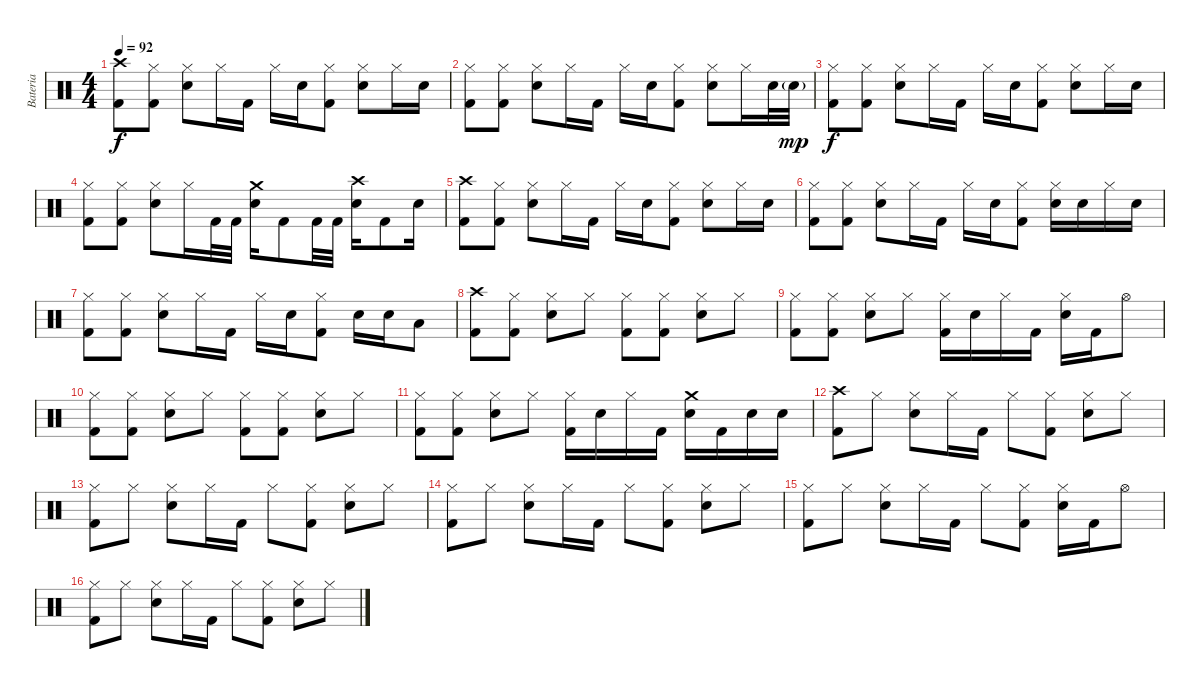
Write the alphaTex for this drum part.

\track ("Bateria" "Bateria") {instrument percussion}
\staff {score}
\articulation defaults
\ts (4 4)
\tempo 92
\clef neutral
\ks c
("Crash high (hit)" "Kick (hit) 2").8{dy f} ("Hi-Hat (closed)" "Kick (hit) 2").8 ("Electric Snare (hit)" "Hi-Hat (closed)").8 "Hi-Hat (closed)".16 "Kick (hit) 2".16 "Hi-Hat (closed)".16 "Electric Snare (hit)".16 ("Hi-Hat (closed)" "Kick (hit) 2").8 ("Electric Snare (hit)" "Hi-Hat (closed)").8 "Hi-Hat (closed)".16 "Electric Snare (hit)".16 |
("Hi-Hat (closed)" "Kick (hit) 2").8 ("Hi-Hat (closed)" "Kick (hit) 2").8 ("Electric Snare (hit)" "Hi-Hat (closed)").8 "Hi-Hat (closed)".16 "Kick (hit) 2".16 "Hi-Hat (closed)".16 "Electric Snare (hit)".16 ("Hi-Hat (closed)" "Kick (hit) 2").8 ("Electric Snare (hit)" "Hi-Hat (closed)").8 "Hi-Hat (closed)".16 "Electric Snare (hit)".32 "Electric Snare (hit)"{g}.32{dy mp} |
("Hi-Hat (closed)" "Kick (hit) 2").8{dy f} ("Hi-Hat (closed)" "Kick (hit) 2").8 ("Electric Snare (hit)" "Hi-Hat (closed)").8 "Hi-Hat (closed)".16 "Kick (hit) 2".16 "Hi-Hat (closed)".16 "Electric Snare (hit)".16 ("Hi-Hat (closed)" "Kick (hit) 2").8 ("Electric Snare (hit)" "Hi-Hat (closed)").8 "Hi-Hat (closed)".16 "Electric Snare (hit)".16 |
("Hi-Hat (closed)" "Kick (hit) 2").8 ("Hi-Hat (closed)" "Kick (hit) 2").8 ("Electric Snare (hit)" "Hi-Hat (closed)").8 "Hi-Hat (closed)".16 "Kick (hit) 2".32 "Kick (hit) 2".32 ("Crash medium (hit)" "Electric Snare (hit)").16 "Kick (hit) 2".8 "Kick (hit) 2".32 "Kick (hit) 2".32 ("Crash high (hit)" "Electric Snare (hit)").16 "Kick (hit) 2".8 "Electric Snare (hit)".16 |
("Crash high (hit)" "Kick (hit) 2").8 ("Hi-Hat (closed)" "Kick (hit) 2").8 ("Electric Snare (hit)" "Hi-Hat (closed)").8 "Hi-Hat (closed)".16 "Kick (hit) 2".16 "Hi-Hat (closed)".16 "Electric Snare (hit)".16 ("Hi-Hat (closed)" "Kick (hit) 2").8 ("Electric Snare (hit)" "Hi-Hat (closed)").8 "Hi-Hat (closed)".16 "Electric Snare (hit)".16 |
("Hi-Hat (closed)" "Kick (hit) 2").8 ("Hi-Hat (closed)" "Kick (hit) 2").8 ("Electric Snare (hit)" "Hi-Hat (closed)").8 "Hi-Hat (closed)".16 "Kick (hit) 2".16 "Hi-Hat (closed)".16 "Electric Snare (hit)".16 ("Hi-Hat (closed)" "Kick (hit) 2").8 ("Electric Snare (hit)" "Hi-Hat (closed)").16 "Electric Snare (hit)".16 "Hi-Hat (closed)".16 "Electric Snare (hit)".16 |
("Hi-Hat (closed)" "Kick (hit) 2").8 ("Hi-Hat (closed)" "Kick (hit) 2").8 ("Electric Snare (hit)" "Hi-Hat (closed)").8 "Hi-Hat (closed)".16 "Kick (hit) 2".16 "Hi-Hat (closed)".16 "Electric Snare (hit)".16 ("Hi-Hat (closed)" "Kick (hit) 2").8 "Electric Snare (hit)".16 "Electric Snare (hit)".16 "Low Tom (hit)".8 |
("Crash high (hit)" "Kick (hit) 2").8 ("Hi-Hat (closed)" "Kick (hit) 2").8 ("Electric Snare (hit)" "Hi-Hat (closed)").8 "Hi-Hat (closed)".8 ("Hi-Hat (closed)" "Kick (hit) 2").8 ("Hi-Hat (closed)" "Kick (hit) 2").8 ("Electric Snare (hit)" "Hi-Hat (closed)").8 "Hi-Hat (closed)".8 |
("Hi-Hat (closed)" "Kick (hit) 2").8 ("Hi-Hat (closed)" "Kick (hit) 2").8 ("Electric Snare (hit)" "Hi-Hat (closed)").8 "Hi-Hat (closed)".8 ("Hi-Hat (closed)" "Kick (hit) 2").16 "Electric Snare (hit)".16 "Hi-Hat (closed)".16 "Kick (hit) 2".16 ("Electric Snare (hit)" "Hi-Hat (closed)").16 "Kick (hit) 2".16 "Hi-Hat (open)".8 |
("Hi-Hat (closed)" "Kick (hit) 2").8 ("Hi-Hat (closed)" "Kick (hit) 2").8 ("Electric Snare (hit)" "Hi-Hat (closed)").8 "Hi-Hat (closed)".8 ("Hi-Hat (closed)" "Kick (hit) 2").8 ("Hi-Hat (closed)" "Kick (hit) 2").8 ("Electric Snare (hit)" "Hi-Hat (closed)").8 "Hi-Hat (closed)".8 |
("Hi-Hat (closed)" "Kick (hit) 2").8 ("Hi-Hat (closed)" "Kick (hit) 2").8 ("Electric Snare (hit)" "Hi-Hat (closed)").8 "Hi-Hat (closed)".8 ("Hi-Hat (closed)" "Kick (hit) 2").16 "Electric Snare (hit)".16 "Hi-Hat (closed)".16 "Kick (hit) 2".16 ("Crash medium (hit)" "Electric Snare (hit)").16 "Kick (hit) 2".16 "Electric Snare (hit)".16 "Electric Snare (hit)".16 |
("Crash high (hit)" "Kick (hit) 2").8 "Hi-Hat (closed)".8 ("Electric Snare (hit)" "Hi-Hat (closed)").8 "Hi-Hat (closed)".16 "Kick (hit) 2".16 "Hi-Hat (closed)".8 ("Hi-Hat (closed)" "Kick (hit) 2").8 ("Electric Snare (hit)" "Hi-Hat (closed)").8 "Hi-Hat (closed)".8 |
("Hi-Hat (closed)" "Kick (hit) 2").8 "Hi-Hat (closed)".8 ("Electric Snare (hit)" "Hi-Hat (closed)").8 "Hi-Hat (closed)".16 "Kick (hit) 2".16 "Hi-Hat (closed)".8 ("Hi-Hat (closed)" "Kick (hit) 2").8 ("Electric Snare (hit)" "Hi-Hat (closed)").8 "Hi-Hat (closed)".8 |
("Hi-Hat (closed)" "Kick (hit) 2").8 "Hi-Hat (closed)".8 ("Electric Snare (hit)" "Hi-Hat (closed)").8 "Hi-Hat (closed)".16 "Kick (hit) 2".16 "Hi-Hat (closed)".8 ("Hi-Hat (closed)" "Kick (hit) 2").8 ("Electric Snare (hit)" "Hi-Hat (closed)").8 "Hi-Hat (closed)".8 |
("Hi-Hat (closed)" "Kick (hit) 2").8 "Hi-Hat (closed)".8 ("Electric Snare (hit)" "Hi-Hat (closed)").8 "Hi-Hat (closed)".16 "Kick (hit) 2".16 "Hi-Hat (closed)".8 ("Hi-Hat (closed)" "Kick (hit) 2").8 ("Electric Snare (hit)" "Hi-Hat (closed)").16 "Kick (hit) 2".16 "Hi-Hat (open)".8 |
("Hi-Hat (closed)" "Kick (hit) 2").8 "Hi-Hat (closed)".8 ("Electric Snare (hit)" "Hi-Hat (closed)").8 "Hi-Hat (closed)".16 "Kick (hit) 2".16 "Hi-Hat (closed)".8 ("Hi-Hat (closed)" "Kick (hit) 2").8 ("Electric Snare (hit)" "Hi-Hat (closed)").8 "Hi-Hat (closed)".8
